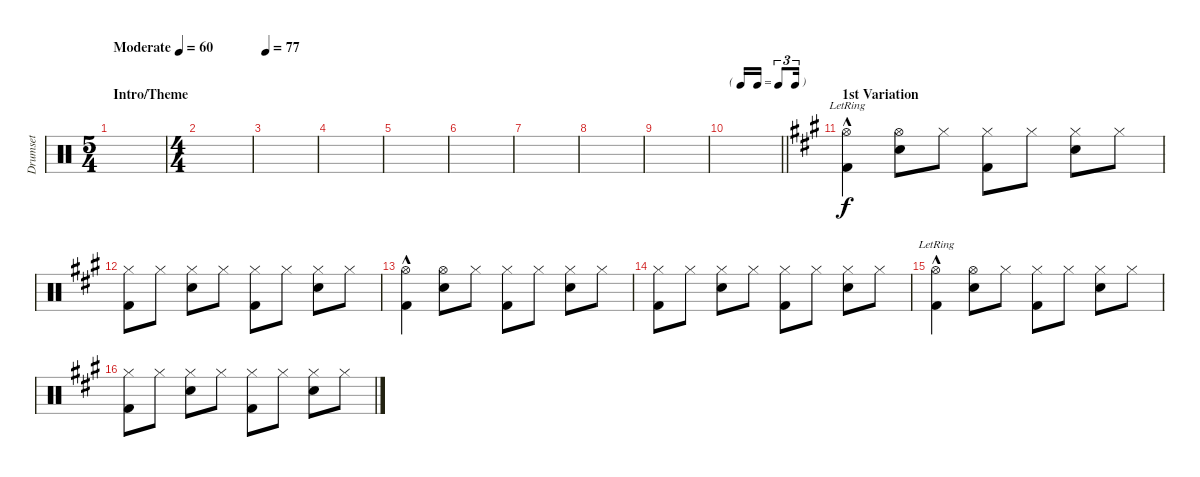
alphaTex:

\track ("Drumset" "Drumset") {instrument percussion}
\staff {score}
\articulation defaults
\ts (5 4)
\section ("" "Intro/Theme")
\tempo (60 "Moderate")
\clef neutral
\ks c
|
\ts (4 4)
|
\tempo 77
|
|
|
|
|
|
|
\tf triplet16th
\barLineRight lightlight
|
\section ("" "1st Variation")
\ks a
("Hi-Hat (open)"{hac lr} "Kick (hit) 2").4 ("Hi-Hat (open)" "Electric Snare (hit)").8 "Hi-Hat (closed)".8 ("Hi-Hat (closed)" "Kick (hit) 2").8 "Hi-Hat (closed)".8 ("Hi-Hat (closed)" "Electric Snare (hit)").8 "Hi-Hat (closed)".8 |
("Hi-Hat (closed)" "Kick (hit) 2").8 "Hi-Hat (closed)".8 ("Hi-Hat (closed)" "Electric Snare (hit)").8 "Hi-Hat (closed)".8 ("Hi-Hat (closed)" "Kick (hit) 2").8 "Hi-Hat (closed)".8 ("Hi-Hat (closed)" "Electric Snare (hit)").8 "Hi-Hat (closed)".8 |
("Hi-Hat (open)"{hac} "Kick (hit) 2").4 ("Hi-Hat (open)" "Electric Snare (hit)").8 "Hi-Hat (closed)".8 ("Hi-Hat (closed)" "Kick (hit) 2").8 "Hi-Hat (closed)".8 ("Hi-Hat (closed)" "Electric Snare (hit)").8 "Hi-Hat (closed)".8 |
("Hi-Hat (closed)" "Kick (hit) 2").8 "Hi-Hat (closed)".8 ("Hi-Hat (closed)" "Electric Snare (hit)").8 "Hi-Hat (closed)".8 ("Hi-Hat (closed)" "Kick (hit) 2").8 "Hi-Hat (closed)".8 ("Hi-Hat (closed)" "Electric Snare (hit)").8 "Hi-Hat (closed)".8 |
("Hi-Hat (open)"{hac lr} "Kick (hit) 2").4 ("Hi-Hat (open)" "Electric Snare (hit)").8 "Hi-Hat (closed)".8 ("Hi-Hat (closed)" "Kick (hit) 2").8 "Hi-Hat (closed)".8 ("Hi-Hat (closed)" "Electric Snare (hit)").8 "Hi-Hat (closed)".8 |
("Hi-Hat (closed)" "Kick (hit) 2").8 "Hi-Hat (closed)".8 ("Hi-Hat (closed)" "Electric Snare (hit)").8 "Hi-Hat (closed)".8 ("Hi-Hat (closed)" "Kick (hit) 2").8 "Hi-Hat (closed)".8 ("Hi-Hat (closed)" "Electric Snare (hit)").8 "Hi-Hat (closed)".8
